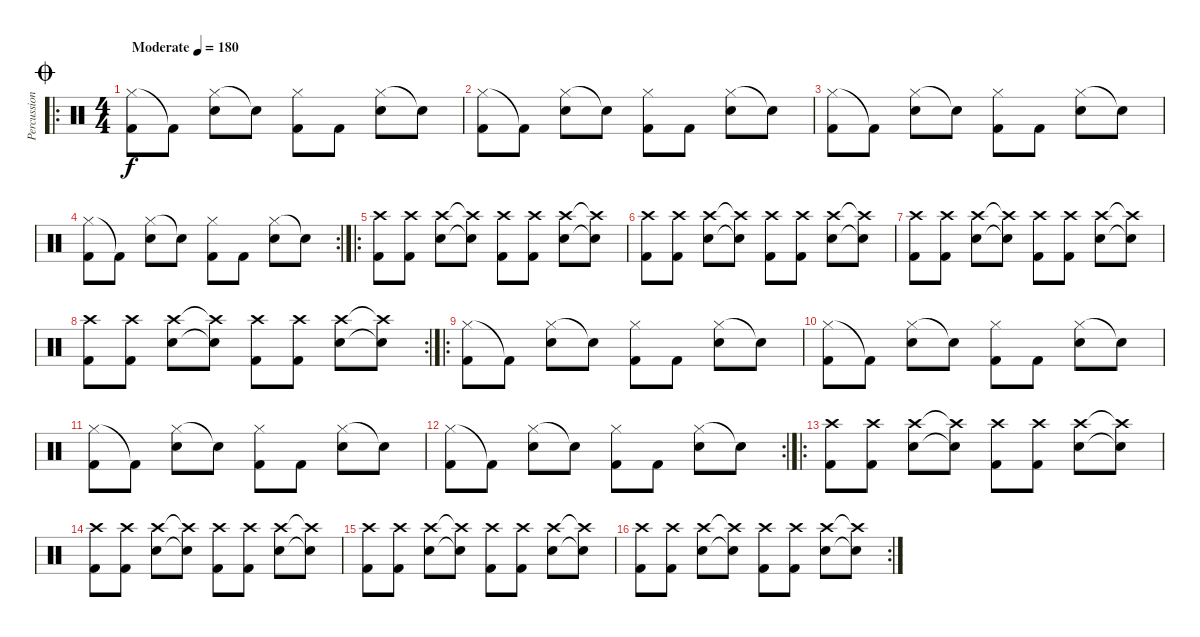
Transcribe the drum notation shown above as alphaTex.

\track ("Percussion" "Percussion") {instrument percussion}
\staff {score}
\articulation defaults
\ro
\ts (4 4)
\jump coda
\tempo (180 "Moderate")
\clef neutral
\ks c
("Hi-Hat (closed)" "Kick (hit) 2").8{dy f} "Kick (hit) 2"{t}.8 ("Hi-Hat (closed)" "Snare (hit) 2").8 "Snare (hit) 2"{t}.8 ("Hi-Hat (closed)" "Kick (hit) 2").8 "Kick (hit) 2".8 ("Hi-Hat (closed)" "Snare (hit) 2").8 "Snare (hit) 2"{t}.8 |
("Hi-Hat (closed)" "Kick (hit) 2").8 "Kick (hit) 2"{t}.8 ("Hi-Hat (closed)" "Snare (hit) 2").8 "Snare (hit) 2"{t}.8 ("Hi-Hat (closed)" "Kick (hit) 2").8 "Kick (hit) 2".8 ("Hi-Hat (closed)" "Snare (hit) 2").8 "Snare (hit) 2"{t}.8 |
("Hi-Hat (closed)" "Kick (hit) 2").8 "Kick (hit) 2"{t}.8 ("Hi-Hat (closed)" "Snare (hit) 2").8 "Snare (hit) 2"{t}.8 ("Hi-Hat (closed)" "Kick (hit) 2").8 "Kick (hit) 2".8 ("Hi-Hat (closed)" "Snare (hit) 2").8 "Snare (hit) 2"{t}.8 |
\rc 2
("Hi-Hat (closed)" "Kick (hit) 2").8 "Kick (hit) 2"{t}.8 ("Hi-Hat (closed)" "Snare (hit) 2").8 "Snare (hit) 2"{t}.8 ("Hi-Hat (closed)" "Kick (hit) 2").8 "Kick (hit) 2".8 ("Hi-Hat (closed)" "Snare (hit) 2").8 "Snare (hit) 2"{t}.8 |
\ro
("Crash high (hit)" "Kick (hit) 2").8 ("Crash high (hit)" "Kick (hit) 2").8 ("Crash high (hit)" "Snare (hit) 2").8 ("Crash high (hit)"{t} "Snare (hit) 2"{t}).8 ("Crash high (hit)" "Kick (hit) 2").8 ("Crash high (hit)" "Kick (hit) 2").8 ("Crash high (hit)" "Snare (hit) 2").8 ("Crash high (hit)"{t} "Snare (hit) 2"{t}).8 |
("Crash high (hit)" "Kick (hit) 2").8 ("Crash high (hit)" "Kick (hit) 2").8 ("Crash high (hit)" "Snare (hit) 2").8 ("Crash high (hit)"{t} "Snare (hit) 2"{t}).8 ("Crash high (hit)" "Kick (hit) 2").8 ("Crash high (hit)" "Kick (hit) 2").8 ("Crash high (hit)" "Snare (hit) 2").8 ("Crash high (hit)"{t} "Snare (hit) 2"{t}).8 |
("Crash high (hit)" "Kick (hit) 2").8 ("Crash high (hit)" "Kick (hit) 2").8 ("Crash high (hit)" "Snare (hit) 2").8 ("Crash high (hit)"{t} "Snare (hit) 2"{t}).8 ("Crash high (hit)" "Kick (hit) 2").8 ("Crash high (hit)" "Kick (hit) 2").8 ("Crash high (hit)" "Snare (hit) 2").8 ("Crash high (hit)"{t} "Snare (hit) 2"{t}).8 |
\rc 2
("Crash high (hit)" "Kick (hit) 2").8 ("Crash high (hit)" "Kick (hit) 2").8 ("Crash high (hit)" "Snare (hit) 2").8 ("Crash high (hit)"{t} "Snare (hit) 2"{t}).8 ("Crash high (hit)" "Kick (hit) 2").8 ("Crash high (hit)" "Kick (hit) 2").8 ("Crash high (hit)" "Snare (hit) 2").8 ("Crash high (hit)"{t} "Snare (hit) 2"{t}).8 |
\ro
("Hi-Hat (closed)" "Kick (hit) 2").8 "Kick (hit) 2"{t}.8 ("Hi-Hat (closed)" "Snare (hit) 2").8 "Snare (hit) 2"{t}.8 ("Hi-Hat (closed)" "Kick (hit) 2").8 "Kick (hit) 2".8 ("Hi-Hat (closed)" "Snare (hit) 2").8 "Snare (hit) 2"{t}.8 |
("Hi-Hat (closed)" "Kick (hit) 2").8 "Kick (hit) 2"{t}.8 ("Hi-Hat (closed)" "Snare (hit) 2").8 "Snare (hit) 2"{t}.8 ("Hi-Hat (closed)" "Kick (hit) 2").8 "Kick (hit) 2".8 ("Hi-Hat (closed)" "Snare (hit) 2").8 "Snare (hit) 2"{t}.8 |
("Hi-Hat (closed)" "Kick (hit) 2").8 "Kick (hit) 2"{t}.8 ("Hi-Hat (closed)" "Snare (hit) 2").8 "Snare (hit) 2"{t}.8 ("Hi-Hat (closed)" "Kick (hit) 2").8 "Kick (hit) 2".8 ("Hi-Hat (closed)" "Snare (hit) 2").8 "Snare (hit) 2"{t}.8 |
\rc 2
("Hi-Hat (closed)" "Kick (hit) 2").8 "Kick (hit) 2"{t}.8 ("Hi-Hat (closed)" "Snare (hit) 2").8 "Snare (hit) 2"{t}.8 ("Hi-Hat (closed)" "Kick (hit) 2").8 "Kick (hit) 2".8 ("Hi-Hat (closed)" "Snare (hit) 2").8 "Snare (hit) 2"{t}.8 |
\ro
("Crash high (hit)" "Kick (hit) 2").8 ("Crash high (hit)" "Kick (hit) 2").8 ("Crash high (hit)" "Snare (hit) 2").8 ("Crash high (hit)"{t} "Snare (hit) 2"{t}).8 ("Crash high (hit)" "Kick (hit) 2").8 ("Crash high (hit)" "Kick (hit) 2").8 ("Crash high (hit)" "Snare (hit) 2").8 ("Crash high (hit)"{t} "Snare (hit) 2"{t}).8 |
("Crash high (hit)" "Kick (hit) 2").8 ("Crash high (hit)" "Kick (hit) 2").8 ("Crash high (hit)" "Snare (hit) 2").8 ("Crash high (hit)"{t} "Snare (hit) 2"{t}).8 ("Crash high (hit)" "Kick (hit) 2").8 ("Crash high (hit)" "Kick (hit) 2").8 ("Crash high (hit)" "Snare (hit) 2").8 ("Crash high (hit)"{t} "Snare (hit) 2"{t}).8 |
("Crash high (hit)" "Kick (hit) 2").8 ("Crash high (hit)" "Kick (hit) 2").8 ("Crash high (hit)" "Snare (hit) 2").8 ("Crash high (hit)"{t} "Snare (hit) 2"{t}).8 ("Crash high (hit)" "Kick (hit) 2").8 ("Crash high (hit)" "Kick (hit) 2").8 ("Crash high (hit)" "Snare (hit) 2").8 ("Crash high (hit)"{t} "Snare (hit) 2"{t}).8 |
\rc 2
("Crash high (hit)" "Kick (hit) 2").8 ("Crash high (hit)" "Kick (hit) 2").8 ("Crash high (hit)" "Snare (hit) 2").8 ("Crash high (hit)"{t} "Snare (hit) 2"{t}).8 ("Crash high (hit)" "Kick (hit) 2").8 ("Crash high (hit)" "Kick (hit) 2").8 ("Crash high (hit)" "Snare (hit) 2").8 ("Crash high (hit)"{t} "Snare (hit) 2"{t}).8
